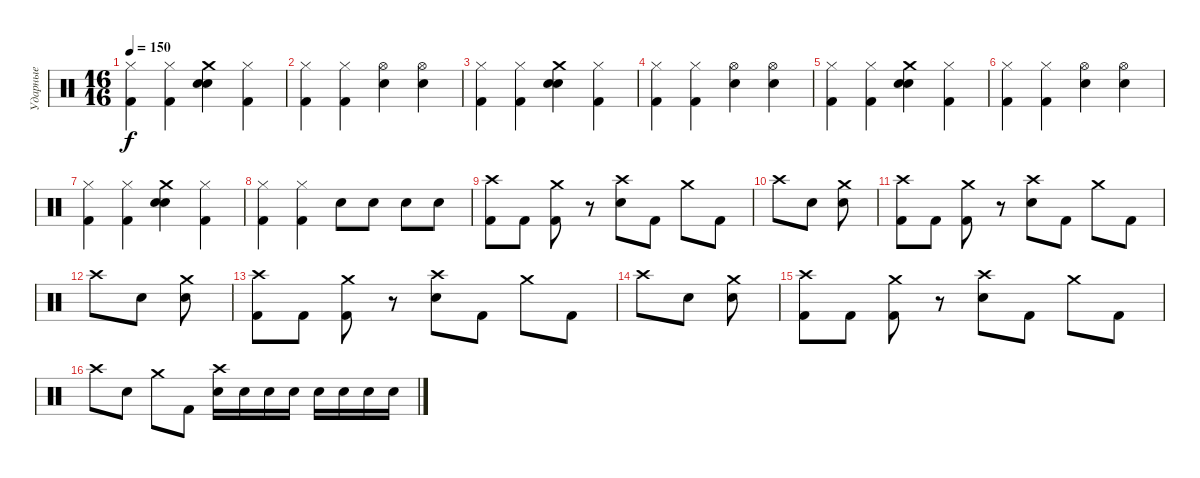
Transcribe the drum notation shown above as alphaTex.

\track ("Ударные" "Ударные") {instrument percussion}
\staff {score}
\articulation defaults
\ts (16 16)
\tempo 150
\clef neutral
\ks c
("Hi-Hat (closed)" "Kick (hit) 2").4{dy f} ("Hi-Hat (closed)" "Kick (hit) 2").4 ("Crash medium (hit)" "Snare (hit) 2" "Electric Snare (hit)").4 ("Hi-Hat (closed)" "Kick (hit) 2").4 |
("Hi-Hat (closed)" "Kick (hit) 2").4 ("Hi-Hat (closed)" "Kick (hit) 2").4 ("Hi-Hat (open)" "Electric Snare (hit)").4 ("Hi-Hat (open)" "Electric Snare (hit)").4 |
("Hi-Hat (closed)" "Kick (hit) 2").4 ("Hi-Hat (closed)" "Kick (hit) 2").4 ("Crash medium (hit)" "Snare (hit) 2" "Electric Snare (hit)").4 ("Hi-Hat (closed)" "Kick (hit) 2").4 |
("Hi-Hat (closed)" "Kick (hit) 2").4 ("Hi-Hat (closed)" "Kick (hit) 2").4 ("Hi-Hat (open)" "Electric Snare (hit)").4 ("Hi-Hat (open)" "Electric Snare (hit)").4 |
("Hi-Hat (closed)" "Kick (hit) 2").4 ("Hi-Hat (closed)" "Kick (hit) 2").4 ("Crash medium (hit)" "Snare (hit) 2" "Electric Snare (hit)").4 ("Hi-Hat (closed)" "Kick (hit) 2").4 |
("Hi-Hat (closed)" "Kick (hit) 2").4 ("Hi-Hat (closed)" "Kick (hit) 2").4 ("Hi-Hat (open)" "Electric Snare (hit)").4 ("Hi-Hat (open)" "Electric Snare (hit)").4 |
("Hi-Hat (closed)" "Kick (hit) 2").4 ("Hi-Hat (closed)" "Kick (hit) 2").4 ("Crash medium (hit)" "Snare (hit) 2" "Electric Snare (hit)").4 ("Hi-Hat (closed)" "Kick (hit) 2").4 |
("Hi-Hat (closed)" "Kick (hit) 2").4 ("Hi-Hat (closed)" "Kick (hit) 2").4 "Electric Snare (hit)".8 "Electric Snare (hit)".8 "Electric Snare (hit)".8 "Electric Snare (hit)".8 |
("Crash high (hit)" "Kick (hit) 2").8 "Kick (hit) 2".8 ("Crash medium (hit)" "Kick (hit) 2").8 r.8 ("Crash high (hit)" "Electric Snare (hit)").8 "Kick (hit) 2".8 "Crash medium (hit)".8 "Kick (hit) 2".8 |
"Crash high (hit)".8 "Snare (hit) 2".8 ("Crash medium (hit)" "Electric Snare (hit)").8 |
("Crash high (hit)" "Kick (hit) 2").8 "Kick (hit) 2".8 ("Crash medium (hit)" "Kick (hit) 2").8 r.8 ("Crash high (hit)" "Electric Snare (hit)").8 "Kick (hit) 2".8 "Crash medium (hit)".8 "Kick (hit) 2".8 |
"Crash high (hit)".8 "Snare (hit) 2".8 ("Crash medium (hit)" "Electric Snare (hit)").8 |
("Crash high (hit)" "Kick (hit) 2").8 "Kick (hit) 2".8 ("Crash medium (hit)" "Kick (hit) 2").8 r.8 ("Crash high (hit)" "Electric Snare (hit)").8 "Kick (hit) 2".8 "Crash medium (hit)".8 "Kick (hit) 2".8 |
"Crash high (hit)".8 "Snare (hit) 2".8 ("Crash medium (hit)" "Electric Snare (hit)").8 |
("Crash high (hit)" "Kick (hit) 2").8 "Kick (hit) 2".8 ("Crash medium (hit)" "Kick (hit) 2").8 r.8 ("Crash high (hit)" "Electric Snare (hit)").8 "Kick (hit) 2".8 "Crash medium (hit)".8 "Kick (hit) 2".8 |
"Crash high (hit)".8 "Electric Snare (hit)".8 "Crash medium (hit)".8 "Kick (hit) 2".8 ("Crash high (hit)" "Electric Snare (hit)").16 "Electric Snare (hit)".16 "Electric Snare (hit)".16 "Electric Snare (hit)".16 "Electric Snare (hit)".16 "Electric Snare (hit)".16 "Electric Snare (hit)".16 "Electric Snare (hit)".16
